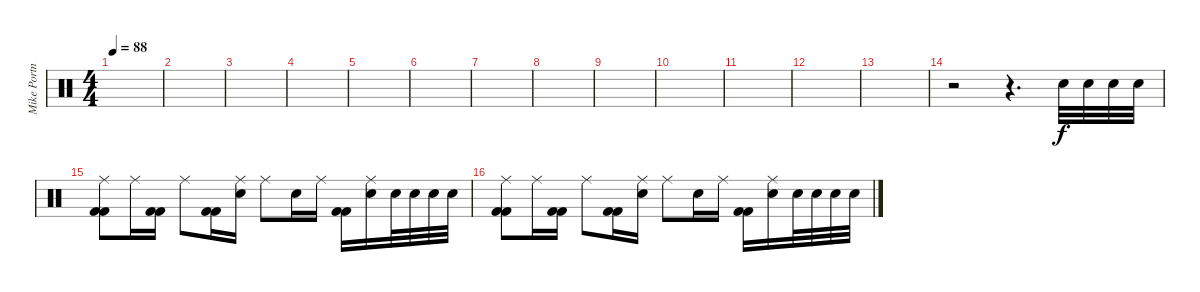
\track ("Mike Portnoy" "Mike Portn") {instrument percussion}
\staff {score}
\articulation defaults
\ts (4 4)
\tempo 88
\clef neutral
\ks c
|
|
|
|
|
|
|
|
|
|
|
|
|
r.2 r.4{d} "Snare (hit) 2".32 "Snare (hit) 2".32 "Snare (hit) 2".32 "Snare (hit) 2".32 |
("Ride (middle)" "Kick (hit) 2" "Kick (hit) 2").8 "Ride (middle)".16 ("Kick (hit) 2" "Kick (hit) 2").16 "Ride (middle)".8 ("Kick (hit) 2" "Kick (hit) 2").16 ("Ride (middle)" "Snare (hit) 2").16 "Ride (middle)".8 "Snare (hit) 2".16 "Ride (middle)".16 ("Kick (hit) 2" "Kick (hit) 2").16 ("Ride (middle)" "Snare (hit) 2").16 "Snare (hit) 2".32 "Snare (hit) 2".32 "Snare (hit) 2".32 "Snare (hit) 2".32 |
("Ride (middle)" "Kick (hit) 2" "Kick (hit) 2").8 "Ride (middle)".16 ("Kick (hit) 2" "Kick (hit) 2").16 "Ride (middle)".8 ("Kick (hit) 2" "Kick (hit) 2").16 ("Ride (middle)" "Snare (hit) 2").16 "Ride (middle)".8 "Snare (hit) 2".16 "Ride (middle)".16 ("Kick (hit) 2" "Kick (hit) 2").16 ("Ride (middle)" "Snare (hit) 2").16 "Snare (hit) 2".32 "Snare (hit) 2".32 "Snare (hit) 2".32 "Snare (hit) 2".32
